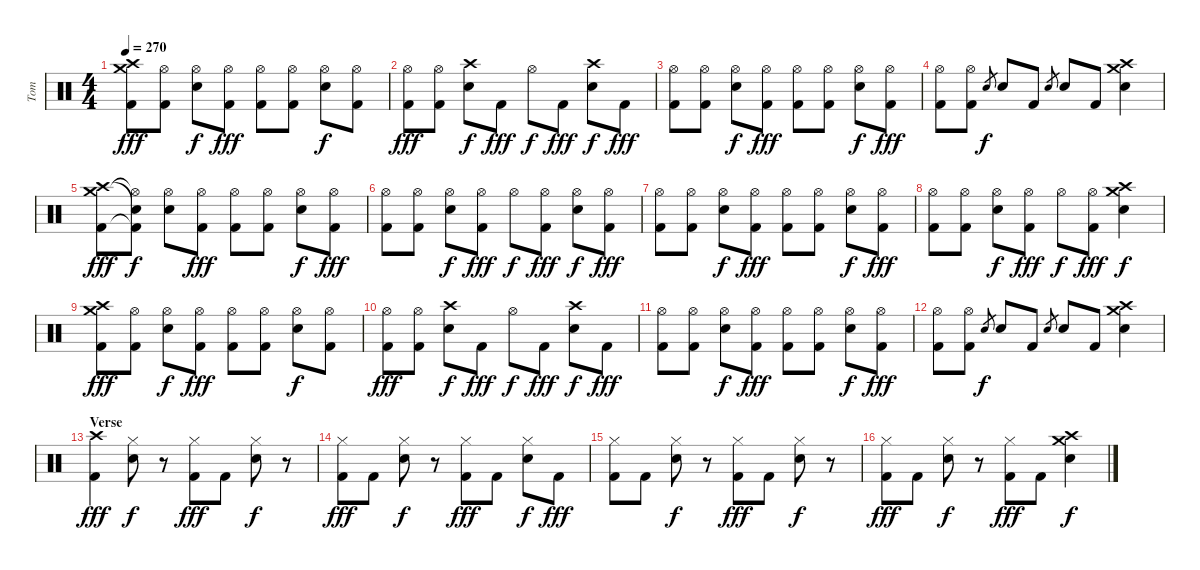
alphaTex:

\track ("Tom" "Tom") {instrument percussion}
\staff {score}
\articulation defaults
\ts (4 4)
\tempo 270
\clef neutral
\ks c
("Kick (hit) 2" "Crash medium (hit)" "Crash high (hit)").8{dy fff} ("Kick (hit) 2" "Hi-Hat (open)").8 ("Electric Snare (hit)" "Hi-Hat (open)").8{dy f} ("Kick (hit) 2" "Hi-Hat (open)").8{dy fff} ("Kick (hit) 2" "Hi-Hat (open)").8 ("Kick (hit) 2" "Hi-Hat (open)").8 ("Electric Snare (hit)" "Hi-Hat (open)").8{dy f} ("Kick (hit) 2" "Hi-Hat (open)").8 |
("Kick (hit) 2" "Hi-Hat (open)").8{dy fff} ("Kick (hit) 2" "Hi-Hat (open)").8 ("Electric Snare (hit)" "Crash high (hit)").8{dy f} "Kick (hit) 2".8{dy fff} "Hi-Hat (open)".8{dy f} "Kick (hit) 2".8{dy fff} ("Electric Snare (hit)" "Crash high (hit)").8{dy f} "Kick (hit) 2".8{dy fff} |
("Kick (hit) 2" "Hi-Hat (open)").8 ("Kick (hit) 2" "Hi-Hat (open)").8 ("Electric Snare (hit)" "Hi-Hat (open)").8{dy f} ("Kick (hit) 2" "Hi-Hat (open)").8{dy fff} ("Kick (hit) 2" "Hi-Hat (open)").8 ("Kick (hit) 2" "Hi-Hat (open)").8 ("Electric Snare (hit)" "Hi-Hat (open)").8{dy f} ("Kick (hit) 2" "Hi-Hat (open)").8{dy fff} |
("Kick (hit) 2" "Hi-Hat (open)").8 ("Kick (hit) 2" "Hi-Hat (open)").8 "Electric Snare (hit)".8{gr dy f} "Electric Snare (hit)".8 "Kick (hit) 2".8 "Electric Snare (hit)".8{gr} "Electric Snare (hit)".8 "Kick (hit) 2".8 ("Electric Snare (hit)" "Crash high (hit)" "Crash medium (hit)").4 |
("Kick (hit) 2" "Crash medium (hit)" "Crash high (hit)").8{dy fff} ("Kick (hit) 2"{t} "Hi-Hat (open)"{t} "Snare (hit)"{t}).8{dy f} ("Electric Snare (hit)" "Hi-Hat (open)").8 ("Kick (hit) 2" "Hi-Hat (open)").8{dy fff} ("Kick (hit) 2" "Hi-Hat (open)").8 ("Kick (hit) 2" "Hi-Hat (open)").8 ("Electric Snare (hit)" "Hi-Hat (open)").8{dy f} ("Kick (hit) 2" "Hi-Hat (open)").8{dy fff} |
("Kick (hit) 2" "Hi-Hat (open)").8 ("Kick (hit) 2" "Hi-Hat (open)").8 ("Electric Snare (hit)" "Hi-Hat (open)").8{dy f} ("Kick (hit) 2" "Hi-Hat (open)").8{dy fff} "Hi-Hat (open)".8{dy f} ("Kick (hit) 2" "Hi-Hat (open)").8{dy fff} ("Electric Snare (hit)" "Hi-Hat (open)").8{dy f} ("Kick (hit) 2" "Hi-Hat (open)").8{dy fff} |
("Kick (hit) 2" "Hi-Hat (open)").8 ("Kick (hit) 2" "Hi-Hat (open)").8 ("Electric Snare (hit)" "Hi-Hat (open)").8{dy f} ("Kick (hit) 2" "Hi-Hat (open)").8{dy fff} ("Kick (hit) 2" "Hi-Hat (open)").8 ("Kick (hit) 2" "Hi-Hat (open)").8 ("Electric Snare (hit)" "Hi-Hat (open)").8{dy f} ("Kick (hit) 2" "Hi-Hat (open)").8{dy fff} |
("Kick (hit) 2" "Hi-Hat (open)").8 ("Kick (hit) 2" "Hi-Hat (open)").8 ("Electric Snare (hit)" "Hi-Hat (open)").8{dy f} ("Kick (hit) 2" "Hi-Hat (open)").8{dy fff} "Hi-Hat (open)".8{dy f} ("Kick (hit) 2" "Hi-Hat (open)").8{dy fff} ("Electric Snare (hit)" "Crash medium (hit)" "Crash high (hit)").4{dy f} |
("Kick (hit) 2" "Crash medium (hit)" "Crash high (hit)").8{dy fff} ("Kick (hit) 2" "Hi-Hat (open)").8 ("Electric Snare (hit)" "Hi-Hat (open)").8{dy f} ("Kick (hit) 2" "Hi-Hat (open)").8{dy fff} ("Kick (hit) 2" "Hi-Hat (open)").8 ("Kick (hit) 2" "Hi-Hat (open)").8 ("Electric Snare (hit)" "Hi-Hat (open)").8{dy f} ("Kick (hit) 2" "Hi-Hat (open)").8 |
("Kick (hit) 2" "Hi-Hat (open)").8{dy fff} ("Kick (hit) 2" "Hi-Hat (open)").8 ("Electric Snare (hit)" "Crash high (hit)").8{dy f} "Kick (hit) 2".8{dy fff} "Hi-Hat (open)".8{dy f} "Kick (hit) 2".8{dy fff} ("Electric Snare (hit)" "Crash high (hit)").8{dy f} "Kick (hit) 2".8{dy fff} |
("Kick (hit) 2" "Hi-Hat (open)").8 ("Kick (hit) 2" "Hi-Hat (open)").8 ("Electric Snare (hit)" "Hi-Hat (open)").8{dy f} ("Kick (hit) 2" "Hi-Hat (open)").8{dy fff} ("Kick (hit) 2" "Hi-Hat (open)").8 ("Kick (hit) 2" "Hi-Hat (open)").8 ("Electric Snare (hit)" "Hi-Hat (open)").8{dy f} ("Kick (hit) 2" "Hi-Hat (open)").8{dy fff} |
("Kick (hit) 2" "Hi-Hat (open)").8 ("Kick (hit) 2" "Hi-Hat (open)").8 "Electric Snare (hit)".8{gr dy f} "Electric Snare (hit)".8 "Kick (hit) 2".8 "Electric Snare (hit)".8{gr} "Electric Snare (hit)".8 "Kick (hit) 2".8 ("Electric Snare (hit)" "Crash high (hit)" "Crash medium (hit)").4 |
\section ("" "Verse")
("Crash high (hit)" "Kick (hit) 2").4{dy fff} ("Electric Snare (hit)" "Hi-Hat (closed)").8{dy f} r.8 ("Kick (hit) 2" "Hi-Hat (closed)").8{dy fff} "Kick (hit) 2".8 ("Electric Snare (hit)" "Hi-Hat (closed)").8{dy f} r.8 |
("Kick (hit) 2" "Hi-Hat (closed)").8{dy fff} "Kick (hit) 2".8 ("Electric Snare (hit)" "Hi-Hat (closed)").8{dy f} r.8 ("Kick (hit) 2" "Hi-Hat (closed)").8{dy fff} "Kick (hit) 2".8 ("Electric Snare (hit)" "Hi-Hat (closed)").8{dy f} "Kick (hit) 2".8{dy fff} |
("Kick (hit) 2" "Hi-Hat (closed)").8 "Kick (hit) 2".8 ("Electric Snare (hit)" "Hi-Hat (closed)").8{dy f} r.8 ("Kick (hit) 2" "Hi-Hat (closed)").8{dy fff} "Kick (hit) 2".8 ("Electric Snare (hit)" "Hi-Hat (closed)").8{dy f} r.8 |
("Kick (hit) 2" "Hi-Hat (closed)").8{dy fff} "Kick (hit) 2".8 ("Electric Snare (hit)" "Hi-Hat (closed)").8{dy f} r.8 ("Kick (hit) 2" "Hi-Hat (closed)").8{dy fff} "Kick (hit) 2".8 ("Electric Snare (hit)" "Crash medium (hit)" "Crash high (hit)").4{dy f}
